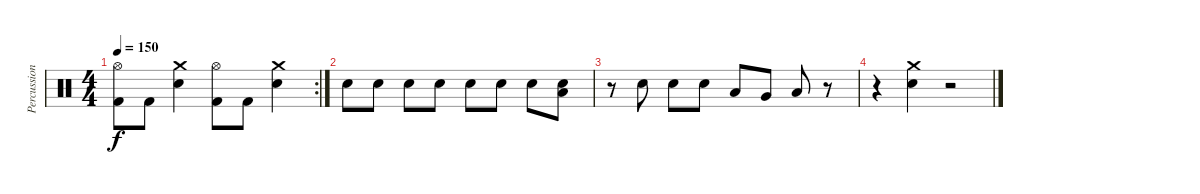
\track ("Percussions" "Percussion") {instrument percussion}
\staff {score}
\articulation defaults
\rc 2
\ts (4 4)
\tempo 150
\clef neutral
\ks c
("Hi-Hat (open)" "Kick (hit) 2").8{dy f} "Kick (hit) 2".8 ("Crash medium (hit)" "Electric Snare (hit)").4 ("Hi-Hat (open)" "Kick (hit) 2").8 "Kick (hit) 2".8 ("Crash medium (hit)" "Electric Snare (hit)").4 |
"Electric Snare (hit)".8 "Electric Snare (hit)".8 "Electric Snare (hit)".8 "Electric Snare (hit)".8 "Electric Snare (hit)".8 "Electric Snare (hit)".8 "Electric Snare (hit)".8 ("Low Tom (hit)" "Electric Snare (hit)").8 |
r.8 "Electric Snare (hit)".8 "Electric Snare (hit)".8 "Electric Snare (hit)".8 "Low Tom (hit)".8 "Very Low Tom (hit)".8 "Low Floor Tom (hit)".8 r.8 |
r.4 ("Crash medium (hit)" "Electric Snare (hit)").4 r.2
